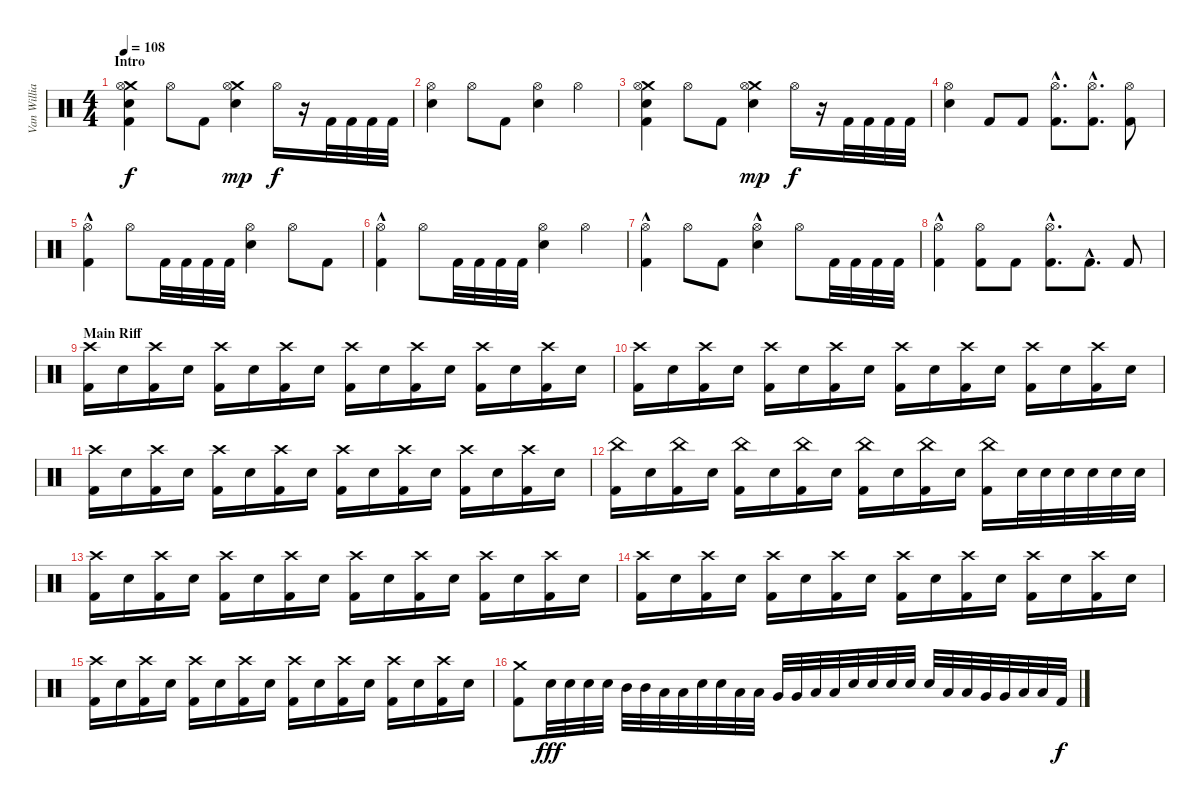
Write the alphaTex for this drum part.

\track ("Van Williams" "Van Willia") {instrument percussion}
\staff {score}
\articulation defaults
\ts (4 4)
\section ("" "Intro")
\tempo 108
\clef neutral
\ks c
("Crash medium (hit)" "Hi-Hat (open)" "Snare (hit) 2" "Kick (hit) 2").4{dy f} "Hi-Hat (open)".8 "Kick (hit) 2".8 ("Crash medium (hit)" "Hi-Hat (open)" "Snare (hit) 2").4{dy mp} "Hi-Hat (open)".16{dy f} r.16 "Kick (hit) 2".32 "Kick (hit) 2".32 "Kick (hit) 2".32 "Kick (hit) 2".32 |
("Hi-Hat (open)" "Snare (hit) 2").4 "Hi-Hat (open)".8 "Kick (hit) 2".8 ("Hi-Hat (open)" "Snare (hit) 2").4 "Hi-Hat (open)".4 |
("Crash medium (hit)" "Hi-Hat (open)" "Snare (hit) 2" "Kick (hit) 2").4 "Hi-Hat (open)".8 "Kick (hit) 2".8 ("Crash medium (hit)" "Hi-Hat (open)" "Snare (hit) 2").4{dy mp} "Hi-Hat (open)".16{dy f} r.16 "Kick (hit) 2".32 "Kick (hit) 2".32 "Kick (hit) 2".32 "Kick (hit) 2".32 |
("Hi-Hat (open)" "Snare (hit) 2").4 "Kick (hit) 2".8 "Kick (hit) 2".8 ("Hi-Hat (open)"{hac} "Kick (hit) 2"{hac}).8{d} ("Hi-Hat (open)"{hac} "Kick (hit) 2"{hac}).8{d} ("Hi-Hat (open)" "Kick (hit) 2").8 |
("Hi-Hat (open)"{hac} "Kick (hit) 2").4 "Hi-Hat (open)".8 "Kick (hit) 2".32 "Kick (hit) 2".32 "Kick (hit) 2".32 "Kick (hit) 2".32 ("Hi-Hat (open)" "Snare (hit) 2").4 "Hi-Hat (open)".8 "Kick (hit) 2".8 |
("Hi-Hat (open)"{hac} "Kick (hit) 2").4 "Hi-Hat (open)".8 "Kick (hit) 2".32 "Kick (hit) 2".32 "Kick (hit) 2".32 "Kick (hit) 2".32 ("Hi-Hat (open)" "Snare (hit) 2").4 "Hi-Hat (open)".4 |
("Hi-Hat (open)"{hac} "Kick (hit) 2").4 "Hi-Hat (open)".8 "Kick (hit) 2".8 ("Hi-Hat (open)"{hac} "Snare (hit) 2").4 "Hi-Hat (open)".8 "Kick (hit) 2".32 "Kick (hit) 2".32 "Kick (hit) 2".32 "Kick (hit) 2".32 |
("Kick (hit) 2"{hac} "Hi-Hat (open)").4 ("Hi-Hat (open)" "Kick (hit) 2").8 "Kick (hit) 2".8 ("Hi-Hat (open)"{hac} "Kick (hit) 2"{hac}).8{d} "Kick (hit) 2"{hac}.8{d} "Kick (hit) 2".8 |
\section ("" "Main Riff")
("Crash high (hit)" "Kick (hit) 2").16 "Snare (hit) 2".16 ("Crash high (hit)" "Kick (hit) 2").16 "Snare (hit) 2".16 ("Crash high (hit)" "Kick (hit) 2").16 "Snare (hit) 2".16 ("Crash high (hit)" "Kick (hit) 2").16 "Snare (hit) 2".16 ("Crash high (hit)" "Kick (hit) 2").16 "Snare (hit) 2".16 ("Crash high (hit)" "Kick (hit) 2").16 "Snare (hit) 2".16 ("Crash high (hit)" "Kick (hit) 2").16 "Snare (hit) 2".16 ("Crash high (hit)" "Kick (hit) 2").16 "Snare (hit) 2".16 |
("Crash high (hit)" "Kick (hit) 2").16 "Snare (hit) 2".16 ("Crash high (hit)" "Kick (hit) 2").16 "Snare (hit) 2".16 ("Crash high (hit)" "Kick (hit) 2").16 "Snare (hit) 2".16 ("Crash high (hit)" "Kick (hit) 2").16 "Snare (hit) 2".16 ("Crash high (hit)" "Kick (hit) 2").16 "Snare (hit) 2".16 ("Crash high (hit)" "Kick (hit) 2").16 "Snare (hit) 2".16 ("Crash high (hit)" "Kick (hit) 2").16 "Snare (hit) 2".16 ("Crash high (hit)" "Kick (hit) 2").16 "Snare (hit) 2".16 |
("Crash high (hit)" "Kick (hit) 2").16 "Snare (hit) 2".16 ("Crash high (hit)" "Kick (hit) 2").16 "Snare (hit) 2".16 ("Crash high (hit)" "Kick (hit) 2").16 "Snare (hit) 2".16 ("Crash high (hit)" "Kick (hit) 2").16 "Snare (hit) 2".16 ("Crash high (hit)" "Kick (hit) 2").16 "Snare (hit) 2".16 ("Crash high (hit)" "Kick (hit) 2").16 "Snare (hit) 2".16 ("Crash high (hit)" "Kick (hit) 2").16 "Snare (hit) 2".16 ("Crash high (hit)" "Kick (hit) 2").16 "Snare (hit) 2".16 |
("China (hit)" "Kick (hit) 2").16 "Snare (hit) 2".16 ("China (hit)" "Kick (hit) 2").16 "Snare (hit) 2".16 ("China (hit)" "Kick (hit) 2").16 "Snare (hit) 2".16 ("China (hit)" "Kick (hit) 2").16 "Snare (hit) 2".16 ("China (hit)" "Kick (hit) 2").16 "Snare (hit) 2".16 ("China (hit)" "Kick (hit) 2").16 "Snare (hit) 2".16 ("China (hit)" "Kick (hit) 2").16 "Snare (hit) 2".32 "Snare (hit) 2".32 "Snare (hit) 2".32 "Snare (hit) 2".32 "Snare (hit) 2".32 "Snare (hit) 2".32 |
("Crash high (hit)" "Kick (hit) 2").16 "Snare (hit) 2".16 ("Crash high (hit)" "Kick (hit) 2").16 "Snare (hit) 2".16 ("Crash high (hit)" "Kick (hit) 2").16 "Snare (hit) 2".16 ("Crash high (hit)" "Kick (hit) 2").16 "Snare (hit) 2".16 ("Crash high (hit)" "Kick (hit) 2").16 "Snare (hit) 2".16 ("Crash high (hit)" "Kick (hit) 2").16 "Snare (hit) 2".16 ("Crash high (hit)" "Kick (hit) 2").16 "Snare (hit) 2".16 ("Crash high (hit)" "Kick (hit) 2").16 "Snare (hit) 2".16 |
("Crash high (hit)" "Kick (hit) 2").16 "Snare (hit) 2".16 ("Crash high (hit)" "Kick (hit) 2").16 "Snare (hit) 2".16 ("Crash high (hit)" "Kick (hit) 2").16 "Snare (hit) 2".16 ("Crash high (hit)" "Kick (hit) 2").16 "Snare (hit) 2".16 ("Crash high (hit)" "Kick (hit) 2").16 "Snare (hit) 2".16 ("Crash high (hit)" "Kick (hit) 2").16 "Snare (hit) 2".16 ("Crash high (hit)" "Kick (hit) 2").16 "Snare (hit) 2".16 ("Crash high (hit)" "Kick (hit) 2").16 "Snare (hit) 2".16 |
("Crash high (hit)" "Kick (hit) 2").16 "Snare (hit) 2".16 ("Crash high (hit)" "Kick (hit) 2").16 "Snare (hit) 2".16 ("Crash high (hit)" "Kick (hit) 2").16 "Snare (hit) 2".16 ("Crash high (hit)" "Kick (hit) 2").16 "Snare (hit) 2".16 ("Crash high (hit)" "Kick (hit) 2").16 "Snare (hit) 2".16 ("Crash high (hit)" "Kick (hit) 2").16 "Snare (hit) 2".16 ("Crash high (hit)" "Kick (hit) 2").16 "Snare (hit) 2".16 ("Crash high (hit)" "Kick (hit) 2").16 "Snare (hit) 2".16 |
("Crash medium (hit)" "Kick (hit) 2").8 "Snare (hit) 2".32{dy fff} "Snare (hit) 2".32 "Snare (hit) 2".32 "Snare (hit) 2".32 "Mid Tom (hit)".32 "Mid Tom (hit)".32 "Low Tom (hit)".32 "Low Tom (hit)".32 "Snare (hit) 2".32 "Snare (hit) 2".32 "Low Tom (hit)".32 "Low Tom (hit)".32 "Very Low Tom (hit)".32 "Very Low Tom (hit)".32 "Low Floor Tom (hit)".32 "Low Floor Tom (hit)".32 "Snare (hit) 2".32 "Snare (hit) 2".32 "Snare (hit) 2".32 "Snare (hit) 2".32 "Snare (hit) 2".32 "Low Tom (hit)".32 "Low Tom (hit)".32 "Very Low Tom (hit)".32 "Very Low Tom (hit)".32 "Low Floor Tom (hit)".32 "Low Floor Tom (hit)".32 "Kick (hit) 2".32{dy f}
